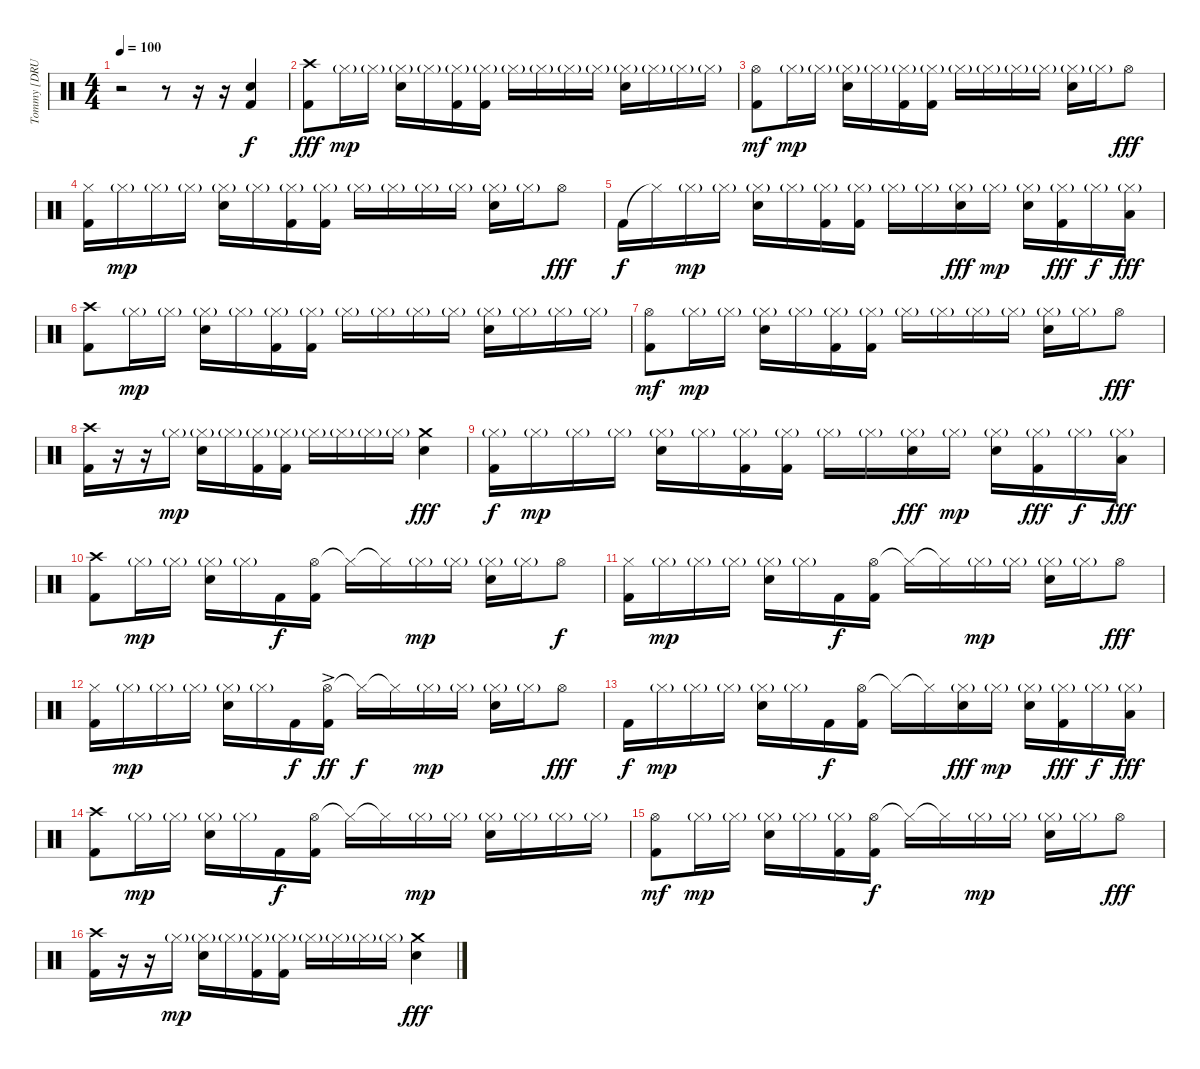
\track ("Tommy [DRUMS]" "Tommy [DRU") {instrument percussion}
\staff {score}
\articulation defaults
\ts (4 4)
\tempo 100
\clef neutral
\ks c
r.2{dy f} r.8 r.16 r.16 ("Snare (hit) 2" "Kick (hit) 2").4 |
("Crash high (hit)" "Kick (hit) 2").8{dy fff} "Hi-Hat (closed)"{g}.16{dy mp} "Hi-Hat (closed)"{g}.16 ("Hi-Hat (closed)"{g} "Snare (hit) 2").16 "Hi-Hat (closed)"{g}.16 ("Hi-Hat (closed)"{g} "Kick (hit) 2").16 ("Hi-Hat (closed)"{g} "Kick (hit) 2").16 "Hi-Hat (closed)"{g}.16 "Hi-Hat (closed)"{g}.16 "Hi-Hat (closed)"{g}.16 "Hi-Hat (closed)"{g}.16 ("Hi-Hat (closed)"{g} "Snare (hit) 2").16 "Hi-Hat (closed)"{g}.16 "Hi-Hat (closed)"{g}.16 "Hi-Hat (closed)"{g}.16 |
("Hi-Hat (open)" "Kick (hit) 2").8{dy mf} "Hi-Hat (closed)"{g}.16{dy mp} "Hi-Hat (closed)"{g}.16 ("Hi-Hat (closed)"{g} "Snare (hit) 2").16 "Hi-Hat (closed)"{g}.16 ("Hi-Hat (closed)"{g} "Kick (hit) 2").16 ("Hi-Hat (closed)"{g} "Kick (hit) 2").16 "Hi-Hat (closed)"{g}.16 "Hi-Hat (closed)"{g}.16 "Hi-Hat (closed)"{g}.16 "Hi-Hat (closed)"{g}.16 ("Hi-Hat (closed)"{g} "Snare (hit) 2").16 "Hi-Hat (closed)"{g}.16 "Hi-Hat (open)".8{dy fff} |
("Hi-Hat (closed)" "Kick (hit) 2").16 "Hi-Hat (closed)"{g}.16{dy mp} "Hi-Hat (closed)"{g}.16 "Hi-Hat (closed)"{g}.16 ("Hi-Hat (closed)"{g} "Snare (hit) 2").16 "Hi-Hat (closed)"{g}.16 ("Hi-Hat (closed)"{g} "Kick (hit) 2").16 ("Hi-Hat (closed)"{g} "Kick (hit) 2").16 "Hi-Hat (closed)"{g}.16 "Hi-Hat (closed)"{g}.16 "Hi-Hat (closed)"{g}.16 "Hi-Hat (closed)"{g}.16 ("Hi-Hat (closed)"{g} "Snare (hit) 2").16 "Hi-Hat (closed)"{g}.16 "Hi-Hat (open)".8{dy fff} |
"Kick (hit) 2".16{dy f} "Hi-Hat (closed)"{t}.16 "Hi-Hat (closed)"{g}.16{dy mp} "Hi-Hat (closed)"{g}.16 ("Hi-Hat (closed)"{g} "Snare (hit) 2").16 "Hi-Hat (closed)"{g}.16 ("Hi-Hat (closed)"{g} "Kick (hit) 2").16 ("Hi-Hat (closed)"{g} "Kick (hit) 2").16 "Hi-Hat (closed)"{g}.16 "Hi-Hat (closed)"{g}.16 ("Hi-Hat (closed)"{g} "Snare (hit) 2").16{dy fff} "Hi-Hat (closed)"{g}.16{dy mp} ("Hi-Hat (closed)"{g} "Snare (hit) 2").16 ("Hi-Hat (closed)"{g} "Kick (hit) 2").16{dy fff} "Hi-Hat (closed)"{g}.16{dy f} ("Hi-Hat (closed)"{g} "Low Tom (hit)").16{dy fff} |
("Crash high (hit)" "Kick (hit) 2").8 "Hi-Hat (closed)"{g}.16{dy mp} "Hi-Hat (closed)"{g}.16 ("Hi-Hat (closed)"{g} "Snare (hit) 2").16 "Hi-Hat (closed)"{g}.16 ("Hi-Hat (closed)"{g} "Kick (hit) 2").16 ("Hi-Hat (closed)"{g} "Kick (hit) 2").16 "Hi-Hat (closed)"{g}.16 "Hi-Hat (closed)"{g}.16 "Hi-Hat (closed)"{g}.16 "Hi-Hat (closed)"{g}.16 ("Hi-Hat (closed)"{g} "Snare (hit) 2").16 "Hi-Hat (closed)"{g}.16 "Hi-Hat (closed)"{g}.16 "Hi-Hat (closed)"{g}.16 |
("Hi-Hat (open)" "Kick (hit) 2").8{dy mf} "Hi-Hat (closed)"{g}.16{dy mp} "Hi-Hat (closed)"{g}.16 ("Hi-Hat (closed)"{g} "Snare (hit) 2").16 "Hi-Hat (closed)"{g}.16 ("Hi-Hat (closed)"{g} "Kick (hit) 2").16 ("Hi-Hat (closed)"{g} "Kick (hit) 2").16 "Hi-Hat (closed)"{g}.16 "Hi-Hat (closed)"{g}.16 "Hi-Hat (closed)"{g}.16 "Hi-Hat (closed)"{g}.16 ("Hi-Hat (closed)"{g} "Snare (hit) 2").16 "Hi-Hat (closed)"{g}.16 "Hi-Hat (open)".8{dy fff} |
("Crash high (hit)" "Kick (hit) 2").16 r.16 r.16 "Hi-Hat (closed)"{g}.16{dy mp} ("Hi-Hat (closed)"{g} "Snare (hit) 2").16 "Hi-Hat (closed)"{g}.16 ("Hi-Hat (closed)"{g} "Kick (hit) 2").16 ("Hi-Hat (closed)"{g} "Kick (hit) 2").16 "Hi-Hat (closed)"{g}.16 "Hi-Hat (closed)"{g}.16 "Hi-Hat (closed)"{g}.16 "Hi-Hat (closed)"{g}.16 ("Crash medium (hit)" "Snare (hit) 2").4{dy fff} |
("Hi-Hat (closed)"{g} "Kick (hit) 2").16{dy f} "Hi-Hat (closed)"{g}.16{dy mp} "Hi-Hat (closed)"{g}.16 "Hi-Hat (closed)"{g}.16 ("Hi-Hat (closed)"{g} "Snare (hit) 2").16 "Hi-Hat (closed)"{g}.16 ("Hi-Hat (closed)"{g} "Kick (hit) 2").16 ("Hi-Hat (closed)"{g} "Kick (hit) 2").16 "Hi-Hat (closed)"{g}.16 "Hi-Hat (closed)"{g}.16 ("Hi-Hat (closed)"{g} "Snare (hit) 2").16{dy fff} "Hi-Hat (closed)"{g}.16{dy mp} ("Hi-Hat (closed)"{g} "Snare (hit) 2").16 ("Hi-Hat (closed)"{g} "Kick (hit) 2").16{dy fff} "Hi-Hat (closed)"{g}.16{dy f} ("Hi-Hat (closed)"{g} "Low Tom (hit)").16{dy fff} |
("Crash high (hit)" "Kick (hit) 2").8 "Hi-Hat (closed)"{g}.16{dy mp} "Hi-Hat (closed)"{g}.16 ("Hi-Hat (closed)"{g} "Snare (hit) 2").16 "Hi-Hat (closed)"{g}.16 "Kick (hit) 2".16{dy f} ("Hi-Hat (open)" "Kick (hit) 2").16 "Hi-Hat (closed)"{t}.16 "Hi-Hat (closed)"{t}.16 "Hi-Hat (closed)"{g}.16{dy mp} "Hi-Hat (closed)"{g}.16 ("Hi-Hat (closed)"{g} "Snare (hit) 2").16 "Hi-Hat (closed)"{g}.16 "Hi-Hat (open)".8{dy f} |
("Hi-Hat (closed)" "Kick (hit) 2").16 "Hi-Hat (closed)"{g}.16{dy mp} "Hi-Hat (closed)"{g}.16 "Hi-Hat (closed)"{g}.16 ("Hi-Hat (closed)"{g} "Snare (hit) 2").16 "Hi-Hat (closed)"{g}.16 "Kick (hit) 2".16{dy f} ("Hi-Hat (open)" "Kick (hit) 2").16 "Hi-Hat (closed)"{t}.16 "Hi-Hat (closed)"{t}.16 "Hi-Hat (closed)"{g}.16{dy mp} "Hi-Hat (closed)"{g}.16 ("Hi-Hat (closed)"{g} "Snare (hit) 2").16 "Hi-Hat (closed)"{g}.16 "Hi-Hat (open)".8{dy fff} |
("Hi-Hat (closed)" "Kick (hit) 2").16 "Hi-Hat (closed)"{g}.16{dy mp} "Hi-Hat (closed)"{g}.16 "Hi-Hat (closed)"{g}.16 ("Hi-Hat (closed)"{g} "Snare (hit) 2").16 "Hi-Hat (closed)"{g}.16 "Kick (hit) 2".16{dy f} ("Hi-Hat (open)"{ac} "Kick (hit) 2").16{dy ff} "Hi-Hat (closed)"{t}.16{dy f} "Hi-Hat (closed)"{t}.16 "Hi-Hat (closed)"{g}.16{dy mp} "Hi-Hat (closed)"{g}.16 ("Hi-Hat (closed)"{g} "Snare (hit) 2").16 "Hi-Hat (closed)"{g}.16 "Hi-Hat (open)".8{dy fff} |
"Kick (hit) 2".16{dy f} "Hi-Hat (closed)"{g}.16{dy mp} "Hi-Hat (closed)"{g}.16 "Hi-Hat (closed)"{g}.16 ("Hi-Hat (closed)"{g} "Snare (hit) 2").16 "Hi-Hat (closed)"{g}.16 "Kick (hit) 2".16{dy f} ("Hi-Hat (open)" "Kick (hit) 2").16 "Hi-Hat (closed)"{t}.16 "Hi-Hat (closed)"{t}.16 ("Hi-Hat (closed)"{g} "Snare (hit) 2").16{dy fff} "Hi-Hat (closed)"{g}.16{dy mp} ("Hi-Hat (closed)"{g} "Snare (hit) 2").16 ("Hi-Hat (closed)"{g} "Kick (hit) 2").16{dy fff} "Hi-Hat (closed)"{g}.16{dy f} ("Hi-Hat (closed)"{g} "Low Tom (hit)").16{dy fff} |
("Crash high (hit)" "Kick (hit) 2").8 "Hi-Hat (closed)"{g}.16{dy mp} "Hi-Hat (closed)"{g}.16 ("Hi-Hat (closed)"{g} "Snare (hit) 2").16 "Hi-Hat (closed)"{g}.16 "Kick (hit) 2".16{dy f} ("Hi-Hat (open)" "Kick (hit) 2").16 "Hi-Hat (closed)"{t}.16 "Hi-Hat (closed)"{t}.16 "Hi-Hat (closed)"{g}.16{dy mp} "Hi-Hat (closed)"{g}.16 ("Hi-Hat (closed)"{g} "Snare (hit) 2").16 "Hi-Hat (closed)"{g}.16 "Hi-Hat (closed)"{g}.16 "Hi-Hat (closed)"{g}.16 |
("Hi-Hat (open)" "Kick (hit) 2").8{dy mf} "Hi-Hat (closed)"{g}.16{dy mp} "Hi-Hat (closed)"{g}.16 ("Hi-Hat (closed)"{g} "Snare (hit) 2").16 "Hi-Hat (closed)"{g}.16 ("Hi-Hat (closed)"{g} "Kick (hit) 2").16 ("Hi-Hat (open)" "Kick (hit) 2").16{dy f} "Hi-Hat (closed)"{t}.16 "Hi-Hat (closed)"{t}.16 "Hi-Hat (closed)"{g}.16{dy mp} "Hi-Hat (closed)"{g}.16 ("Hi-Hat (closed)"{g} "Snare (hit) 2").16 "Hi-Hat (closed)"{g}.16 "Hi-Hat (open)".8{dy fff} |
("Crash high (hit)" "Kick (hit) 2").16 r.16 r.16 "Hi-Hat (closed)"{g}.16{dy mp} ("Hi-Hat (closed)"{g} "Snare (hit) 2").16 "Hi-Hat (closed)"{g}.16 ("Hi-Hat (closed)"{g} "Kick (hit) 2").16 ("Hi-Hat (closed)"{g} "Kick (hit) 2").16 "Hi-Hat (closed)"{g}.16 "Hi-Hat (closed)"{g}.16 "Hi-Hat (closed)"{g}.16 "Hi-Hat (closed)"{g}.16 ("Crash medium (hit)" "Snare (hit) 2").4{dy fff}
